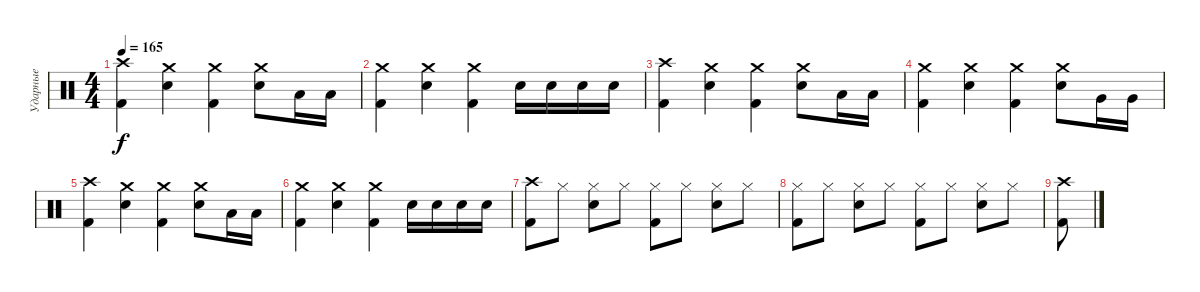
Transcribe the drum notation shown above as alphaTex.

\track ("Ударные" "Ударные") {instrument percussion}
\staff {score}
\articulation defaults
\ts (4 4)
\tempo 165
\clef neutral
\ks c
("Crash high (hit)" "Kick (hit) 2").4{dy f} ("Crash medium (hit)" "Snare (hit) 2").4 ("Kick (hit) 2" "Crash medium (hit)").4 ("Snare (hit) 2" "Crash medium (hit)").8 "Low Tom (hit)".16 "Low Tom (hit)".16 |
("Crash medium (hit)" "Kick (hit) 2").4 ("Crash medium (hit)" "Snare (hit) 2").4 ("Kick (hit) 2" "Crash medium (hit)").4 "Snare (hit) 2".16 "Snare (hit) 2".16 "Snare (hit) 2".16 "Snare (hit) 2".16 |
("Crash high (hit)" "Kick (hit) 2").4 ("Crash medium (hit)" "Snare (hit) 2").4 ("Kick (hit) 2" "Crash medium (hit)").4 ("Snare (hit) 2" "Crash medium (hit)").8 "Low Tom (hit)".16 "Low Tom (hit)".16 |
("Crash medium (hit)" "Kick (hit) 2").4 ("Crash medium (hit)" "Snare (hit) 2").4 ("Kick (hit) 2" "Crash medium (hit)").4 ("Snare (hit) 2" "Crash medium (hit)").8 "Very Low Tom (hit)".16 "Very Low Tom (hit)".16 |
("Crash high (hit)" "Kick (hit) 2").4 ("Crash medium (hit)" "Snare (hit) 2").4 ("Kick (hit) 2" "Crash medium (hit)").4 ("Snare (hit) 2" "Crash medium (hit)").8 "Low Tom (hit)".16 "Low Tom (hit)".16 |
("Crash medium (hit)" "Kick (hit) 2").4 ("Crash medium (hit)" "Snare (hit) 2").4 ("Kick (hit) 2" "Crash medium (hit)").4 "Snare (hit) 2".16 "Snare (hit) 2".16 "Snare (hit) 2".16 "Snare (hit) 2".16 |
("Kick (hit) 2" "Crash high (hit)").8 "Hi-Hat (closed)".8 ("Snare (hit) 2" "Hi-Hat (closed)").8 "Hi-Hat (closed)".8 ("Hi-Hat (closed)" "Kick (hit) 2").8 "Hi-Hat (closed)".8 ("Snare (hit) 2" "Hi-Hat (closed)").8 "Hi-Hat (closed)".8 |
("Kick (hit) 2" "Hi-Hat (closed)").8 "Hi-Hat (closed)".8 ("Snare (hit) 2" "Hi-Hat (closed)").8 "Hi-Hat (closed)".8 ("Hi-Hat (closed)" "Kick (hit) 2").8 "Hi-Hat (closed)".8 ("Snare (hit) 2" "Hi-Hat (closed)").8 "Hi-Hat (closed)".8 |
("Kick (hit) 2" "Crash high (hit)").8
